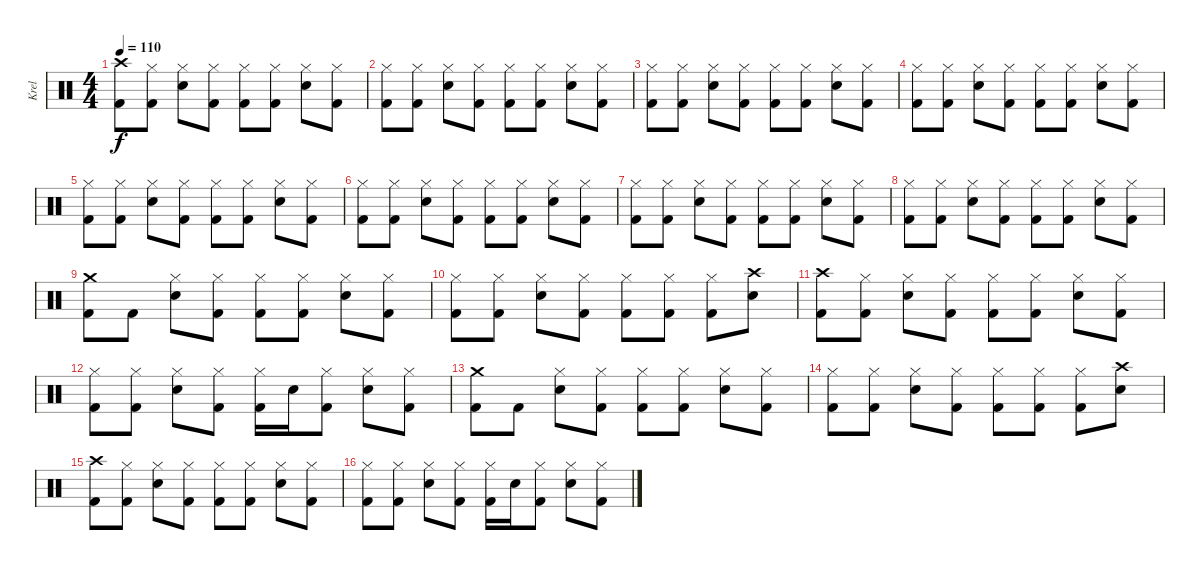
\track ("Krel" "Krel") {instrument percussion}
\staff {score}
\articulation defaults
\ts (4 4)
\tempo 110
\clef neutral
\ks c
("Crash high (hit)" "Kick (hit) 2").8{dy f} ("Hi-Hat (closed)" "Kick (hit) 2").8 ("Hi-Hat (closed)" "Snare (hit) 2").8 ("Hi-Hat (closed)" "Kick (hit) 2").8 ("Hi-Hat (closed)" "Kick (hit) 2").8 ("Hi-Hat (closed)" "Kick (hit) 2").8 ("Hi-Hat (closed)" "Snare (hit) 2").8 ("Hi-Hat (closed)" "Kick (hit) 2").8 |
("Hi-Hat (closed)" "Kick (hit) 2").8 ("Hi-Hat (closed)" "Kick (hit) 2").8 ("Hi-Hat (closed)" "Snare (hit) 2").8 ("Hi-Hat (closed)" "Kick (hit) 2").8 ("Hi-Hat (closed)" "Kick (hit) 2").8 ("Hi-Hat (closed)" "Kick (hit) 2").8 ("Hi-Hat (closed)" "Snare (hit) 2").8 ("Hi-Hat (closed)" "Kick (hit) 2").8 |
("Hi-Hat (closed)" "Kick (hit) 2").8 ("Hi-Hat (closed)" "Kick (hit) 2").8 ("Hi-Hat (closed)" "Snare (hit) 2").8 ("Hi-Hat (closed)" "Kick (hit) 2").8 ("Hi-Hat (closed)" "Kick (hit) 2").8 ("Hi-Hat (closed)" "Kick (hit) 2").8 ("Hi-Hat (closed)" "Snare (hit) 2").8 ("Hi-Hat (closed)" "Kick (hit) 2").8 |
("Hi-Hat (closed)" "Kick (hit) 2").8 ("Hi-Hat (closed)" "Kick (hit) 2").8 ("Hi-Hat (closed)" "Snare (hit) 2").8 ("Hi-Hat (closed)" "Kick (hit) 2").8 ("Hi-Hat (closed)" "Kick (hit) 2").8 ("Hi-Hat (closed)" "Kick (hit) 2").8 ("Hi-Hat (closed)" "Snare (hit) 2").8 ("Hi-Hat (closed)" "Kick (hit) 2").8 |
("Hi-Hat (closed)" "Kick (hit) 2").8 ("Hi-Hat (closed)" "Kick (hit) 2").8 ("Hi-Hat (closed)" "Snare (hit) 2").8 ("Hi-Hat (closed)" "Kick (hit) 2").8 ("Hi-Hat (closed)" "Kick (hit) 2").8 ("Hi-Hat (closed)" "Kick (hit) 2").8 ("Hi-Hat (closed)" "Snare (hit) 2").8 ("Hi-Hat (closed)" "Kick (hit) 2").8 |
("Hi-Hat (closed)" "Kick (hit) 2").8 ("Hi-Hat (closed)" "Kick (hit) 2").8 ("Hi-Hat (closed)" "Snare (hit) 2").8 ("Hi-Hat (closed)" "Kick (hit) 2").8 ("Hi-Hat (closed)" "Kick (hit) 2").8 ("Hi-Hat (closed)" "Kick (hit) 2").8 ("Hi-Hat (closed)" "Snare (hit) 2").8 ("Hi-Hat (closed)" "Kick (hit) 2").8 |
("Hi-Hat (closed)" "Kick (hit) 2").8 ("Hi-Hat (closed)" "Kick (hit) 2").8 ("Hi-Hat (closed)" "Snare (hit) 2").8 ("Hi-Hat (closed)" "Kick (hit) 2").8 ("Hi-Hat (closed)" "Kick (hit) 2").8 ("Hi-Hat (closed)" "Kick (hit) 2").8 ("Hi-Hat (closed)" "Snare (hit) 2").8 ("Hi-Hat (closed)" "Kick (hit) 2").8 |
("Hi-Hat (closed)" "Kick (hit) 2").8 ("Hi-Hat (closed)" "Kick (hit) 2").8 ("Hi-Hat (closed)" "Snare (hit) 2").8 ("Hi-Hat (closed)" "Kick (hit) 2").8 ("Hi-Hat (closed)" "Kick (hit) 2").8 ("Hi-Hat (closed)" "Kick (hit) 2").8 ("Hi-Hat (closed)" "Snare (hit) 2").8 ("Hi-Hat (closed)" "Kick (hit) 2").8 |
("Crash medium (hit)" "Kick (hit) 2").8 "Kick (hit) 2".8 ("Hi-Hat (closed)" "Snare (hit) 2").8 ("Hi-Hat (closed)" "Kick (hit) 2").8 ("Hi-Hat (closed)" "Kick (hit) 2").8 ("Hi-Hat (closed)" "Kick (hit) 2").8 ("Hi-Hat (closed)" "Snare (hit) 2").8 ("Hi-Hat (closed)" "Kick (hit) 2").8 |
("Hi-Hat (closed)" "Kick (hit) 2").8 ("Hi-Hat (closed)" "Kick (hit) 2").8 ("Hi-Hat (closed)" "Snare (hit) 2").8 ("Hi-Hat (closed)" "Kick (hit) 2").8 ("Hi-Hat (closed)" "Kick (hit) 2").8 ("Hi-Hat (closed)" "Kick (hit) 2").8 ("Hi-Hat (closed)" "Kick (hit) 2").8 ("Crash high (hit)" "Snare (hit) 2").8 |
("Crash high (hit)" "Kick (hit) 2").8 ("Hi-Hat (closed)" "Kick (hit) 2").8 ("Hi-Hat (closed)" "Snare (hit) 2").8 ("Hi-Hat (closed)" "Kick (hit) 2").8 ("Hi-Hat (closed)" "Kick (hit) 2").8 ("Hi-Hat (closed)" "Kick (hit) 2").8 ("Hi-Hat (closed)" "Snare (hit) 2").8 ("Hi-Hat (closed)" "Kick (hit) 2").8 |
("Hi-Hat (closed)" "Kick (hit) 2").8 ("Hi-Hat (closed)" "Kick (hit) 2").8 ("Hi-Hat (closed)" "Snare (hit) 2").8 ("Hi-Hat (closed)" "Kick (hit) 2").8 ("Hi-Hat (closed)" "Kick (hit) 2").16 "Snare (hit) 2".16 ("Hi-Hat (closed)" "Kick (hit) 2").8 ("Hi-Hat (closed)" "Snare (hit) 2").8 ("Hi-Hat (closed)" "Kick (hit) 2").8 |
("Crash medium (hit)" "Kick (hit) 2").8 "Kick (hit) 2".8 ("Hi-Hat (closed)" "Snare (hit) 2").8 ("Hi-Hat (closed)" "Kick (hit) 2").8 ("Hi-Hat (closed)" "Kick (hit) 2").8 ("Hi-Hat (closed)" "Kick (hit) 2").8 ("Hi-Hat (closed)" "Snare (hit) 2").8 ("Hi-Hat (closed)" "Kick (hit) 2").8 |
("Hi-Hat (closed)" "Kick (hit) 2").8 ("Hi-Hat (closed)" "Kick (hit) 2").8 ("Hi-Hat (closed)" "Snare (hit) 2").8 ("Hi-Hat (closed)" "Kick (hit) 2").8 ("Hi-Hat (closed)" "Kick (hit) 2").8 ("Hi-Hat (closed)" "Kick (hit) 2").8 ("Hi-Hat (closed)" "Kick (hit) 2").8 ("Crash high (hit)" "Snare (hit) 2").8 |
("Crash high (hit)" "Kick (hit) 2").8 ("Hi-Hat (closed)" "Kick (hit) 2").8 ("Hi-Hat (closed)" "Snare (hit) 2").8 ("Hi-Hat (closed)" "Kick (hit) 2").8 ("Hi-Hat (closed)" "Kick (hit) 2").8 ("Hi-Hat (closed)" "Kick (hit) 2").8 ("Hi-Hat (closed)" "Snare (hit) 2").8 ("Hi-Hat (closed)" "Kick (hit) 2").8 |
("Hi-Hat (closed)" "Kick (hit) 2").8 ("Hi-Hat (closed)" "Kick (hit) 2").8 ("Hi-Hat (closed)" "Snare (hit) 2").8 ("Hi-Hat (closed)" "Kick (hit) 2").8 ("Hi-Hat (closed)" "Kick (hit) 2").16 "Snare (hit) 2".16 ("Hi-Hat (closed)" "Kick (hit) 2").8 ("Hi-Hat (closed)" "Snare (hit) 2").8 ("Hi-Hat (closed)" "Kick (hit) 2").8
